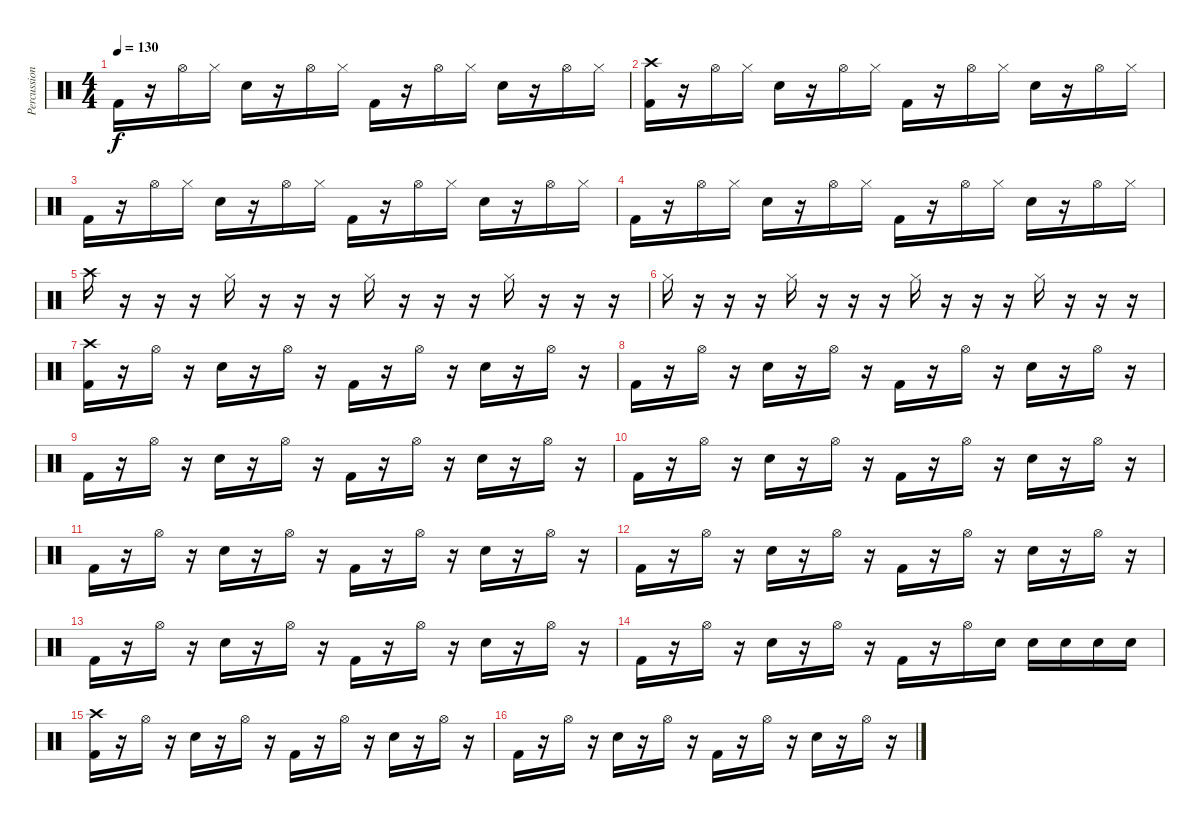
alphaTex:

\track ("Percussion" "Percussion") {instrument percussion}
\staff {score}
\articulation defaults
\ts (4 4)
\tempo 130
\clef neutral
\ks c "Kick (hit) 2".16{dy f}
r.16 "Hi-Hat (open)".16 "Hi-Hat (closed)".16 "Snare (hit) 2".16 r.16 "Hi-Hat (open)".16 "Hi-Hat (closed)".16 "Kick (hit) 2".16 r.16 "Hi-Hat (open)".16 "Hi-Hat (closed)".16 "Snare (hit) 2".16 r.16 "Hi-Hat (open)".16 "Hi-Hat (closed)".16 |
("Crash high (hit)" "Kick (hit) 2").16 r.16 "Hi-Hat (open)".16 "Hi-Hat (closed)".16 "Snare (hit) 2".16 r.16 "Hi-Hat (open)".16 "Hi-Hat (closed)".16 "Kick (hit) 2".16 r.16 "Hi-Hat (open)".16 "Hi-Hat (closed)".16 "Snare (hit) 2".16 r.16 "Hi-Hat (open)".16 "Hi-Hat (closed)".16 |
"Kick (hit) 2".16 r.16 "Hi-Hat (open)".16 "Hi-Hat (closed)".16 "Snare (hit) 2".16 r.16 "Hi-Hat (open)".16 "Hi-Hat (closed)".16 "Kick (hit) 2".16 r.16 "Hi-Hat (open)".16 "Hi-Hat (closed)".16 "Snare (hit) 2".16 r.16 "Hi-Hat (open)".16 "Hi-Hat (closed)".16 |
"Kick (hit) 2".16 r.16 "Hi-Hat (open)".16 "Hi-Hat (closed)".16 "Snare (hit) 2".16 r.16 "Hi-Hat (open)".16 "Hi-Hat (closed)".16 "Kick (hit) 2".16 r.16 "Hi-Hat (open)".16 "Hi-Hat (closed)".16 "Snare (hit) 2".16 r.16 "Hi-Hat (open)".16 "Hi-Hat (closed)".16 |
"Crash high (hit)".16 r.16 r.16 r.16 "Hi-Hat (closed)".16 r.16 r.16 r.16 "Hi-Hat (closed)".16 r.16 r.16 r.16 "Hi-Hat (closed)".16 r.16 r.16 r.16 |
"Hi-Hat (closed)".16 r.16 r.16 r.16 "Hi-Hat (closed)".16 r.16 r.16 r.16 "Hi-Hat (closed)".16 r.16 r.16 r.16 "Hi-Hat (closed)".16 r.16 r.16 r.16 |
("Crash high (hit)" "Kick (hit) 2").16 r.16 "Hi-Hat (open)".16 r.16 "Snare (hit) 2".16 r.16 "Hi-Hat (open)".16 r.16 "Kick (hit) 2".16 r.16 "Hi-Hat (open)".16 r.16 "Snare (hit) 2".16 r.16 "Hi-Hat (open)".16 r.16 |
"Kick (hit) 2".16 r.16 "Hi-Hat (open)".16 r.16 "Snare (hit) 2".16 r.16 "Hi-Hat (open)".16 r.16 "Kick (hit) 2".16 r.16 "Hi-Hat (open)".16 r.16 "Snare (hit) 2".16 r.16 "Hi-Hat (open)".16 r.16 |
"Kick (hit) 2".16 r.16 "Hi-Hat (open)".16 r.16 "Snare (hit) 2".16 r.16 "Hi-Hat (open)".16 r.16 "Kick (hit) 2".16 r.16 "Hi-Hat (open)".16 r.16 "Snare (hit) 2".16 r.16 "Hi-Hat (open)".16 r.16 |
"Kick (hit) 2".16 r.16 "Hi-Hat (open)".16 r.16 "Snare (hit) 2".16 r.16 "Hi-Hat (open)".16 r.16 "Kick (hit) 2".16 r.16 "Hi-Hat (open)".16 r.16 "Snare (hit) 2".16 r.16 "Hi-Hat (open)".16 r.16 |
"Kick (hit) 2".16 r.16 "Hi-Hat (open)".16 r.16 "Snare (hit) 2".16 r.16 "Hi-Hat (open)".16 r.16 "Kick (hit) 2".16 r.16 "Hi-Hat (open)".16 r.16 "Snare (hit) 2".16 r.16 "Hi-Hat (open)".16 r.16 |
"Kick (hit) 2".16 r.16 "Hi-Hat (open)".16 r.16 "Snare (hit) 2".16 r.16 "Hi-Hat (open)".16 r.16 "Kick (hit) 2".16 r.16 "Hi-Hat (open)".16 r.16 "Snare (hit) 2".16 r.16 "Hi-Hat (open)".16 r.16 |
"Kick (hit) 2".16 r.16 "Hi-Hat (open)".16 r.16 "Snare (hit) 2".16 r.16 "Hi-Hat (open)".16 r.16 "Kick (hit) 2".16 r.16 "Hi-Hat (open)".16 r.16 "Snare (hit) 2".16 r.16 "Hi-Hat (open)".16 r.16 |
"Kick (hit) 2".16 r.16 "Hi-Hat (open)".16 r.16 "Snare (hit) 2".16 r.16 "Hi-Hat (open)".16 r.16 "Kick (hit) 2".16 r.16 "Hi-Hat (open)".16 "Snare (hit) 2".16 "Snare (hit) 2".16 "Snare (hit) 2".16 "Snare (hit) 2".16 "Snare (hit) 2".16 |
("Crash high (hit)" "Kick (hit) 2").16 r.16 "Hi-Hat (open)".16 r.16 "Snare (hit) 2".16 r.16 "Hi-Hat (open)".16 r.16 "Kick (hit) 2".16 r.16 "Hi-Hat (open)".16 r.16 "Snare (hit) 2".16 r.16 "Hi-Hat (open)".16 r.16 |
"Kick (hit) 2".16 r.16 "Hi-Hat (open)".16 r.16 "Snare (hit) 2".16 r.16 "Hi-Hat (open)".16 r.16 "Kick (hit) 2".16 r.16 "Hi-Hat (open)".16 r.16 "Snare (hit) 2".16 r.16 "Hi-Hat (open)".16 r.16
